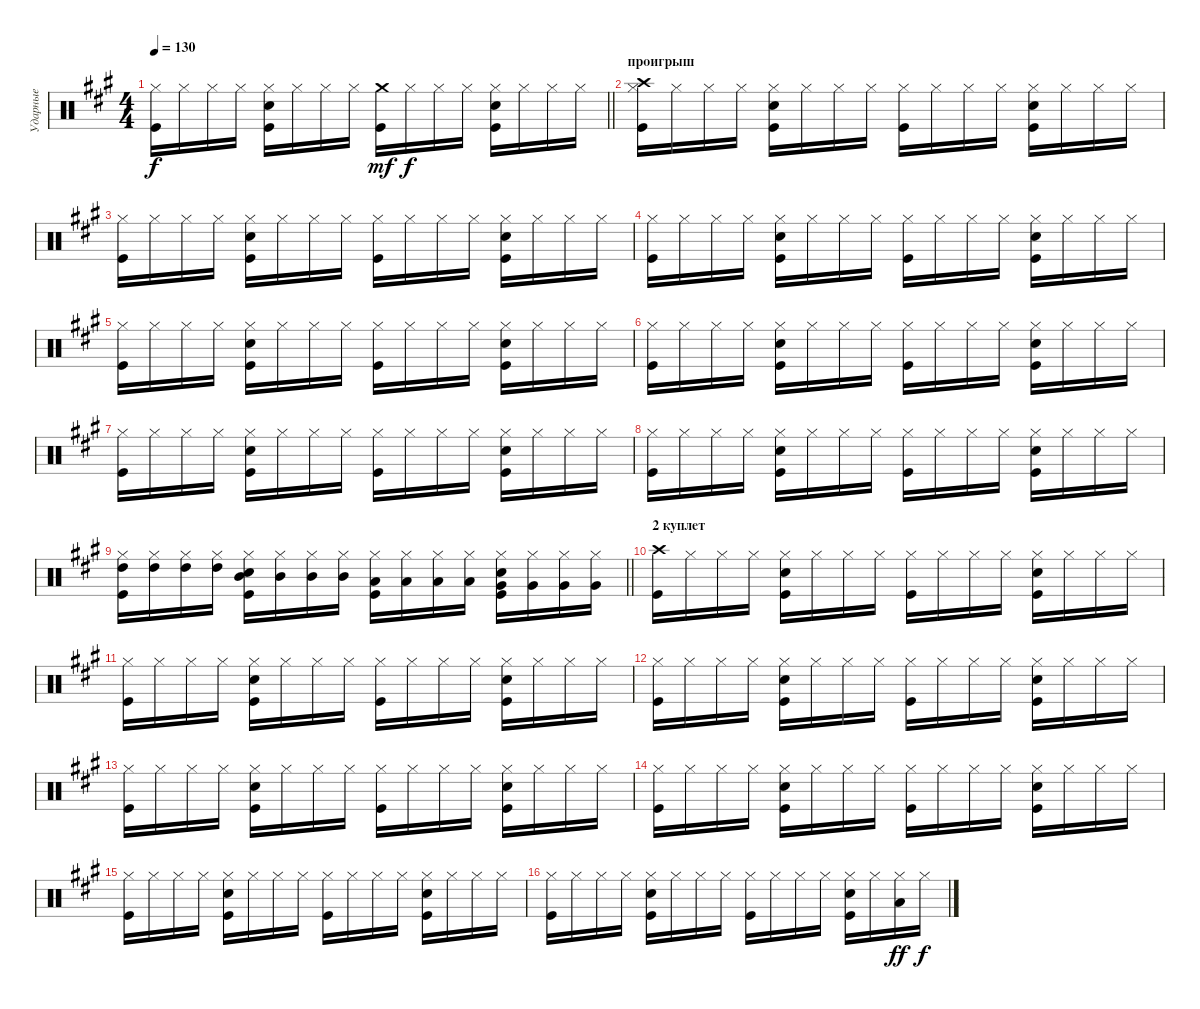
\track ("Ударные" "Ударные") {instrument percussion}
\staff {score}
\articulation defaults
\ts (4 4)
\tempo 130
\clef neutral
\barLineRight lightlight
\ks f#minor
("Hi-Hat (closed)" "Kick (hit)").16{dy f} "Hi-Hat (closed)".16 "Hi-Hat (closed)".16 "Hi-Hat (closed)".16 ("Hi-Hat (closed)" "Snare (hit) 2" "Kick (hit)").16 "Hi-Hat (closed)".16 "Hi-Hat (closed)".16 "Hi-Hat (closed)".16 ("Crash medium (hit)" "Kick (hit)").16{dy mf} "Hi-Hat (closed)".16{dy f} "Hi-Hat (closed)".16 "Hi-Hat (closed)".16 ("Hi-Hat (closed)" "Snare (hit) 2" "Kick (hit)").16 "Hi-Hat (closed)".16 "Hi-Hat (closed)".16 "Hi-Hat (closed)".16 |
\section ("" "проигрыш")
("Kick (hit)" "Hi-Hat (closed)" "Crash high (hit)").16 "Hi-Hat (closed)".16 "Hi-Hat (closed)".16 "Hi-Hat (closed)".16 ("Hi-Hat (closed)" "Snare (hit) 2" "Kick (hit)").16 "Hi-Hat (closed)".16 "Hi-Hat (closed)".16 "Hi-Hat (closed)".16 ("Hi-Hat (closed)" "Kick (hit)").16 "Hi-Hat (closed)".16 "Hi-Hat (closed)".16 "Hi-Hat (closed)".16 ("Hi-Hat (closed)" "Snare (hit) 2" "Kick (hit)").16 "Hi-Hat (closed)".16 "Hi-Hat (closed)".16 "Hi-Hat (closed)".16 |
("Hi-Hat (closed)" "Kick (hit)").16 "Hi-Hat (closed)".16 "Hi-Hat (closed)".16 "Hi-Hat (closed)".16 ("Hi-Hat (closed)" "Snare (hit) 2" "Kick (hit)").16 "Hi-Hat (closed)".16 "Hi-Hat (closed)".16 "Hi-Hat (closed)".16 ("Hi-Hat (closed)" "Kick (hit)").16 "Hi-Hat (closed)".16 "Hi-Hat (closed)".16 "Hi-Hat (closed)".16 ("Hi-Hat (closed)" "Snare (hit) 2" "Kick (hit)").16 "Hi-Hat (closed)".16 "Hi-Hat (closed)".16 "Hi-Hat (closed)".16 |
("Hi-Hat (closed)" "Kick (hit)").16 "Hi-Hat (closed)".16 "Hi-Hat (closed)".16 "Hi-Hat (closed)".16 ("Hi-Hat (closed)" "Snare (hit) 2" "Kick (hit)").16 "Hi-Hat (closed)".16 "Hi-Hat (closed)".16 "Hi-Hat (closed)".16 ("Hi-Hat (closed)" "Kick (hit)").16 "Hi-Hat (closed)".16 "Hi-Hat (closed)".16 "Hi-Hat (closed)".16 ("Hi-Hat (closed)" "Snare (hit) 2" "Kick (hit)").16 "Hi-Hat (closed)".16 "Hi-Hat (closed)".16 "Hi-Hat (closed)".16 |
("Hi-Hat (closed)" "Kick (hit)").16 "Hi-Hat (closed)".16 "Hi-Hat (closed)".16 "Hi-Hat (closed)".16 ("Hi-Hat (closed)" "Snare (hit) 2" "Kick (hit)").16 "Hi-Hat (closed)".16 "Hi-Hat (closed)".16 "Hi-Hat (closed)".16 ("Hi-Hat (closed)" "Kick (hit)").16 "Hi-Hat (closed)".16 "Hi-Hat (closed)".16 "Hi-Hat (closed)".16 ("Hi-Hat (closed)" "Snare (hit) 2" "Kick (hit)").16 "Hi-Hat (closed)".16 "Hi-Hat (closed)".16 "Hi-Hat (closed)".16 |
("Kick (hit)" "Hi-Hat (closed)").16 "Hi-Hat (closed)".16 "Hi-Hat (closed)".16 "Hi-Hat (closed)".16 ("Hi-Hat (closed)" "Snare (hit) 2" "Kick (hit)").16 "Hi-Hat (closed)".16 "Hi-Hat (closed)".16 "Hi-Hat (closed)".16 ("Hi-Hat (closed)" "Kick (hit)").16 "Hi-Hat (closed)".16 "Hi-Hat (closed)".16 "Hi-Hat (closed)".16 ("Hi-Hat (closed)" "Snare (hit) 2" "Kick (hit)").16 "Hi-Hat (closed)".16 "Hi-Hat (closed)".16 "Hi-Hat (closed)".16 |
("Hi-Hat (closed)" "Kick (hit)").16 "Hi-Hat (closed)".16 "Hi-Hat (closed)".16 "Hi-Hat (closed)".16 ("Hi-Hat (closed)" "Snare (hit) 2" "Kick (hit)").16 "Hi-Hat (closed)".16 "Hi-Hat (closed)".16 "Hi-Hat (closed)".16 ("Hi-Hat (closed)" "Kick (hit)").16 "Hi-Hat (closed)".16 "Hi-Hat (closed)".16 "Hi-Hat (closed)".16 ("Hi-Hat (closed)" "Snare (hit) 2" "Kick (hit)").16 "Hi-Hat (closed)".16 "Hi-Hat (closed)".16 "Hi-Hat (closed)".16 |
("Hi-Hat (closed)" "Kick (hit)").16 "Hi-Hat (closed)".16 "Hi-Hat (closed)".16 "Hi-Hat (closed)".16 ("Hi-Hat (closed)" "Snare (hit) 2" "Kick (hit)").16 "Hi-Hat (closed)".16 "Hi-Hat (closed)".16 "Hi-Hat (closed)".16 ("Hi-Hat (closed)" "Kick (hit)").16 "Hi-Hat (closed)".16 "Hi-Hat (closed)".16 "Hi-Hat (closed)".16 ("Hi-Hat (closed)" "Snare (hit) 2" "Kick (hit)").16 "Hi-Hat (closed)".16 "Hi-Hat (closed)".16 "Hi-Hat (closed)".16 |
\barLineRight lightlight
("Hi-Hat (closed)" "Kick (hit)" "High Tom (hit)").16 ("Hi-Hat (closed)" "High Tom (hit)").16 ("Hi-Hat (closed)" "High Tom (hit)").16 ("Hi-Hat (closed)" "High Tom (hit)").16 ("Hi-Hat (closed)" "Snare (hit) 2" "Kick (hit)" "Mid Tom (hit)").16 ("Hi-Hat (closed)" "Mid Tom (hit)").16 ("Hi-Hat (closed)" "Mid Tom (hit)").16 ("Hi-Hat (closed)" "Mid Tom (hit)").16 ("Hi-Hat (closed)" "Kick (hit)" "Low Tom (hit)").16 ("Hi-Hat (closed)" "Low Tom (hit)").16 ("Hi-Hat (closed)" "Low Tom (hit)").16 ("Hi-Hat (closed)" "Low Tom (hit)").16 ("Hi-Hat (closed)" "Snare (hit) 2" "Kick (hit)" "Very Low Tom (hit)").16 ("Hi-Hat (closed)" "Very Low Tom (hit)").16 ("Hi-Hat (closed)" "Very Low Tom (hit)").16 ("Hi-Hat (closed)" "Very Low Tom (hit)").16 |
\section ("" "2 куплет")
("Kick (hit)" "Crash high (hit)").16 "Hi-Hat (closed)".16 "Hi-Hat (closed)".16 "Hi-Hat (closed)".16 ("Hi-Hat (closed)" "Snare (hit) 2" "Kick (hit)").16 "Hi-Hat (closed)".16 "Hi-Hat (closed)".16 "Hi-Hat (closed)".16 ("Hi-Hat (closed)" "Kick (hit)").16 "Hi-Hat (closed)".16 "Hi-Hat (closed)".16 "Hi-Hat (closed)".16 ("Hi-Hat (closed)" "Snare (hit) 2" "Kick (hit)").16 "Hi-Hat (closed)".16 "Hi-Hat (closed)".16 "Hi-Hat (closed)".16 |
("Hi-Hat (closed)" "Kick (hit)").16 "Hi-Hat (closed)".16 "Hi-Hat (closed)".16 "Hi-Hat (closed)".16 ("Hi-Hat (closed)" "Snare (hit) 2" "Kick (hit)").16 "Hi-Hat (closed)".16 "Hi-Hat (closed)".16 "Hi-Hat (closed)".16 ("Hi-Hat (closed)" "Kick (hit)").16 "Hi-Hat (closed)".16 "Hi-Hat (closed)".16 "Hi-Hat (closed)".16 ("Hi-Hat (closed)" "Snare (hit) 2" "Kick (hit)").16 "Hi-Hat (closed)".16 "Hi-Hat (closed)".16 "Hi-Hat (closed)".16 |
("Hi-Hat (closed)" "Kick (hit)").16 "Hi-Hat (closed)".16 "Hi-Hat (closed)".16 "Hi-Hat (closed)".16 ("Hi-Hat (closed)" "Snare (hit) 2" "Kick (hit)").16 "Hi-Hat (closed)".16 "Hi-Hat (closed)".16 "Hi-Hat (closed)".16 ("Hi-Hat (closed)" "Kick (hit)").16 "Hi-Hat (closed)".16 "Hi-Hat (closed)".16 "Hi-Hat (closed)".16 ("Hi-Hat (closed)" "Snare (hit) 2" "Kick (hit)").16 "Hi-Hat (closed)".16 "Hi-Hat (closed)".16 "Hi-Hat (closed)".16 |
("Hi-Hat (closed)" "Kick (hit)").16 "Hi-Hat (closed)".16 "Hi-Hat (closed)".16 "Hi-Hat (closed)".16 ("Hi-Hat (closed)" "Snare (hit) 2" "Kick (hit)").16 "Hi-Hat (closed)".16 "Hi-Hat (closed)".16 "Hi-Hat (closed)".16 ("Hi-Hat (closed)" "Kick (hit)").16 "Hi-Hat (closed)".16 "Hi-Hat (closed)".16 "Hi-Hat (closed)".16 ("Hi-Hat (closed)" "Snare (hit) 2" "Kick (hit)").16 "Hi-Hat (closed)".16 "Hi-Hat (closed)".16 "Hi-Hat (closed)".16 |
("Hi-Hat (closed)" "Kick (hit)").16 "Hi-Hat (closed)".16 "Hi-Hat (closed)".16 "Hi-Hat (closed)".16 ("Hi-Hat (closed)" "Snare (hit) 2" "Kick (hit)").16 "Hi-Hat (closed)".16 "Hi-Hat (closed)".16 "Hi-Hat (closed)".16 ("Hi-Hat (closed)" "Kick (hit)").16 "Hi-Hat (closed)".16 "Hi-Hat (closed)".16 "Hi-Hat (closed)".16 ("Hi-Hat (closed)" "Snare (hit) 2" "Kick (hit)").16 "Hi-Hat (closed)".16 "Hi-Hat (closed)".16 "Hi-Hat (closed)".16 |
("Hi-Hat (closed)" "Kick (hit)").16 "Hi-Hat (closed)".16 "Hi-Hat (closed)".16 "Hi-Hat (closed)".16 ("Hi-Hat (closed)" "Snare (hit) 2" "Kick (hit)").16 "Hi-Hat (closed)".16 "Hi-Hat (closed)".16 "Hi-Hat (closed)".16 ("Hi-Hat (closed)" "Kick (hit)").16 "Hi-Hat (closed)".16 "Hi-Hat (closed)".16 "Hi-Hat (closed)".16 ("Hi-Hat (closed)" "Snare (hit) 2" "Kick (hit)").16 "Hi-Hat (closed)".16 "Hi-Hat (closed)".16 "Hi-Hat (closed)".16 |
("Hi-Hat (closed)" "Kick (hit)").16 "Hi-Hat (closed)".16 "Hi-Hat (closed)".16 "Hi-Hat (closed)".16 ("Hi-Hat (closed)" "Snare (hit) 2" "Kick (hit)").16 "Hi-Hat (closed)".16 "Hi-Hat (closed)".16 "Hi-Hat (closed)".16 ("Hi-Hat (closed)" "Kick (hit)").16 "Hi-Hat (closed)".16 "Hi-Hat (closed)".16 "Hi-Hat (closed)".16 ("Hi-Hat (closed)" "Snare (hit) 2" "Kick (hit)").16 "Hi-Hat (closed)".16 ("Hi-Hat (closed)" "Low Floor Tom (hit)").16{dy ff} "Hi-Hat (closed)".16{dy f}
